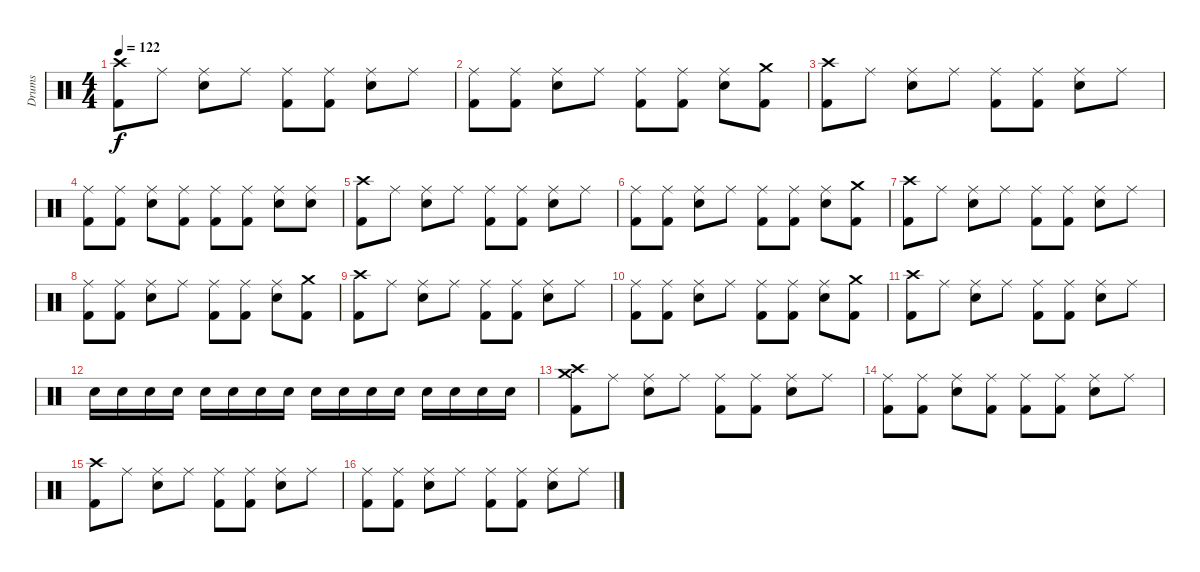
\track ("Drums" "Drums") {instrument percussion}
\staff {score}
\articulation defaults
\ts (4 4)
\tempo 122
\clef neutral
\ks c
("Crash high (hit)" "Kick (hit) 2").8{dy f} "Ride (middle)".8 ("Ride (middle)" "Snare (hit) 2").8 "Ride (middle)".8 ("Ride (middle)" "Kick (hit) 2").8 ("Ride (middle)" "Kick (hit) 2").8 ("Ride (middle)" "Snare (hit) 2").8 "Ride (middle)".8 |
("Ride (middle)" "Kick (hit) 2").8 ("Ride (middle)" "Kick (hit) 2").8 ("Ride (middle)" "Snare (hit) 2").8 "Ride (middle)".8 ("Ride (middle)" "Kick (hit) 2").8 ("Ride (middle)" "Kick (hit) 2").8 ("Ride (middle)" "Snare (hit) 2").8 ("Crash medium (hit)" "Kick (hit) 2").8 |
("Crash high (hit)" "Kick (hit) 2").8 "Ride (middle)".8 ("Ride (middle)" "Snare (hit) 2").8 "Ride (middle)".8 ("Ride (middle)" "Kick (hit) 2").8 ("Ride (middle)" "Kick (hit) 2").8 ("Ride (middle)" "Snare (hit) 2").8 "Ride (middle)".8 |
("Ride (middle)" "Kick (hit) 2").8 ("Ride (middle)" "Kick (hit) 2").8 ("Ride (middle)" "Snare (hit) 2").8 ("Ride (middle)" "Kick (hit) 2").8 ("Ride (middle)" "Kick (hit) 2").8 ("Ride (middle)" "Kick (hit) 2").8 ("Ride (middle)" "Snare (hit) 2").8 ("Ride (middle)" "Snare (hit) 2").8 |
("Crash high (hit)" "Kick (hit) 2").8 "Ride (middle)".8 ("Ride (middle)" "Snare (hit) 2").8 "Ride (middle)".8 ("Ride (middle)" "Kick (hit) 2").8 ("Ride (middle)" "Kick (hit) 2").8 ("Ride (middle)" "Snare (hit) 2").8 "Ride (middle)".8 |
("Ride (middle)" "Kick (hit) 2").8 ("Ride (middle)" "Kick (hit) 2").8 ("Ride (middle)" "Snare (hit) 2").8 "Ride (middle)".8 ("Ride (middle)" "Kick (hit) 2").8 ("Ride (middle)" "Kick (hit) 2").8 ("Ride (middle)" "Snare (hit) 2").8 ("Crash medium (hit)" "Kick (hit) 2").8 |
("Crash high (hit)" "Kick (hit) 2").8 "Ride (middle)".8 ("Ride (middle)" "Snare (hit) 2").8 "Ride (middle)".8 ("Ride (middle)" "Kick (hit) 2").8 ("Ride (middle)" "Kick (hit) 2").8 ("Ride (middle)" "Snare (hit) 2").8 "Ride (middle)".8 |
("Ride (middle)" "Kick (hit) 2").8 ("Ride (middle)" "Kick (hit) 2").8 ("Ride (middle)" "Snare (hit) 2").8 "Ride (middle)".8 ("Ride (middle)" "Kick (hit) 2").8 ("Ride (middle)" "Kick (hit) 2").8 ("Ride (middle)" "Snare (hit) 2").8 ("Crash medium (hit)" "Kick (hit) 2").8 |
("Crash high (hit)" "Kick (hit) 2").8 "Ride (middle)".8 ("Ride (middle)" "Snare (hit) 2").8 "Ride (middle)".8 ("Ride (middle)" "Kick (hit) 2").8 ("Ride (middle)" "Kick (hit) 2").8 ("Ride (middle)" "Snare (hit) 2").8 "Ride (middle)".8 |
("Ride (middle)" "Kick (hit) 2").8 ("Ride (middle)" "Kick (hit) 2").8 ("Ride (middle)" "Snare (hit) 2").8 "Ride (middle)".8 ("Ride (middle)" "Kick (hit) 2").8 ("Ride (middle)" "Kick (hit) 2").8 ("Ride (middle)" "Snare (hit) 2").8 ("Crash medium (hit)" "Kick (hit) 2").8 |
("Crash high (hit)" "Kick (hit) 2").8 "Ride (middle)".8 ("Ride (middle)" "Snare (hit) 2").8 "Ride (middle)".8 ("Ride (middle)" "Kick (hit) 2").8 ("Ride (middle)" "Kick (hit) 2").8 ("Ride (middle)" "Snare (hit) 2").8 "Ride (middle)".8 |
"Snare (hit) 2".16 "Snare (hit) 2".16 "Snare (hit) 2".16 "Snare (hit) 2".16 "Snare (hit) 2".16 "Snare (hit) 2".16 "Snare (hit) 2".16 "Snare (hit) 2".16 "Snare (hit) 2".16 "Snare (hit) 2".16 "Snare (hit) 2".16 "Snare (hit) 2".16 "Snare (hit) 2".16 "Snare (hit) 2".16 "Snare (hit) 2".16 "Snare (hit) 2".16 |
("Crash high (hit)" "Crash medium (hit)" "Kick (hit) 2").8 "Ride (middle)".8 ("Ride (middle)" "Snare (hit) 2").8 "Ride (middle)".8 ("Ride (middle)" "Kick (hit) 2").8 ("Ride (middle)" "Kick (hit) 2").8 ("Ride (middle)" "Snare (hit) 2").8 "Ride (middle)".8 |
("Ride (middle)" "Kick (hit) 2").8 ("Ride (middle)" "Kick (hit) 2").8 ("Ride (middle)" "Snare (hit) 2").8 ("Ride (middle)" "Kick (hit) 2").8 ("Ride (middle)" "Kick (hit) 2").8 ("Ride (middle)" "Kick (hit) 2").8 ("Ride (middle)" "Snare (hit) 2").8 "Ride (middle)".8 |
("Crash high (hit)" "Kick (hit) 2").8 "Ride (middle)".8 ("Ride (middle)" "Snare (hit) 2").8 "Ride (middle)".8 ("Ride (middle)" "Kick (hit) 2").8 ("Ride (middle)" "Kick (hit) 2").8 ("Ride (middle)" "Snare (hit) 2").8 "Ride (middle)".8 |
("Ride (middle)" "Kick (hit) 2").8 ("Ride (middle)" "Kick (hit) 2").8 ("Ride (middle)" "Snare (hit) 2").8 "Ride (middle)".8 ("Ride (middle)" "Kick (hit) 2").8 ("Ride (middle)" "Kick (hit) 2").8 ("Ride (middle)" "Snare (hit) 2").8 "Ride (middle)".8
